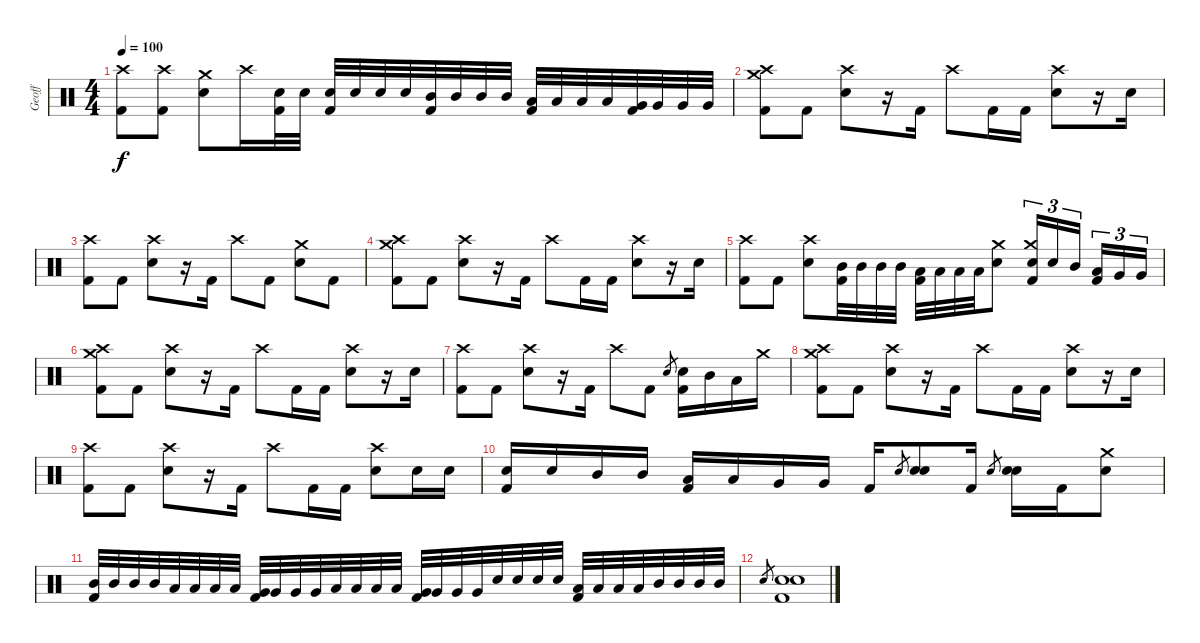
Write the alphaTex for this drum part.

\track ("Geoff" "Geoff") {instrument percussion}
\staff {score}
\articulation defaults
\ts (4 4)
\tempo 100
\clef neutral
\ks c
("Crash high (hit)" "Kick (hit) 2").8{dy f} ("Crash high (hit)" "Kick (hit) 2").8 ("Crash medium (hit)" "Electric Snare (hit)").8 "Crash high (hit)".16 ("Electric Snare (hit)" "Kick (hit) 2").32 "Electric Snare (hit)".32 ("Electric Snare (hit)" "Kick (hit) 2").32 "Electric Snare (hit)".32 "Electric Snare (hit)".32 "Electric Snare (hit)".32 ("Mid Tom (hit)" "Kick (hit) 2").32 "Mid Tom (hit)".32 "Mid Tom (hit)".32 "Mid Tom (hit)".32 ("Low Tom (hit)" "Kick (hit) 2").32 "Low Tom (hit)".32 "Low Tom (hit)".32 "Low Tom (hit)".32 ("Very Low Tom (hit)" "Kick (hit) 2").32 "Very Low Tom (hit)".32 "Very Low Tom (hit)".32 "Very Low Tom (hit)".32 |
("Crash high (hit)" "Crash medium (hit)" "Kick (hit) 2").8 "Kick (hit) 2".8 ("Crash high (hit)" "Electric Snare (hit)").8 r.16 "Kick (hit) 2".16 "Crash high (hit)".8 "Kick (hit) 2".16 "Kick (hit) 2".16 ("Crash high (hit)" "Electric Snare (hit)").8 r.16 "Electric Snare (hit)".16 |
("Crash high (hit)" "Kick (hit) 2").8 "Kick (hit) 2".8 ("Crash high (hit)" "Electric Snare (hit)").8 r.16 "Kick (hit) 2".16 "Crash high (hit)".8 "Kick (hit) 2".8 ("Crash medium (hit)" "Electric Snare (hit)").8 "Kick (hit) 2".8 |
("Crash high (hit)" "Crash medium (hit)" "Kick (hit) 2").8 "Kick (hit) 2".8 ("Crash high (hit)" "Electric Snare (hit)").8 r.16 "Kick (hit) 2".16 "Crash high (hit)".8 "Kick (hit) 2".16 "Kick (hit) 2".16 ("Crash high (hit)" "Electric Snare (hit)").8 r.16 "Electric Snare (hit)".16 |
("Crash high (hit)" "Kick (hit) 2").8 "Kick (hit) 2".8 ("Crash high (hit)" "Electric Snare (hit)").8 ("Mid Tom (hit)" "Kick (hit) 2").32 "Mid Tom (hit)".32 "Mid Tom (hit)".32 "Mid Tom (hit)".32 ("Low Tom (hit)" "Kick (hit) 2").32 "Low Tom (hit)".32 "Low Tom (hit)".32 "Low Tom (hit)".32 ("Crash medium (hit)" "Electric Snare (hit)").8 ("Crash medium (hit)" "Electric Snare (hit)" "Kick (hit) 2").16{tu (3 2)} "Electric Snare (hit)".16{tu (3 2)} "Mid Tom (hit)".16{tu (3 2)} ("Low Tom (hit)" "Kick (hit) 2").16{tu (3 2)} "Very Low Tom (hit)".16{tu (3 2)} "Very Low Tom (hit)".16{tu (3 2)} |
("Crash high (hit)" "Crash medium (hit)" "Kick (hit) 2").8 "Kick (hit) 2".8 ("Crash high (hit)" "Electric Snare (hit)").8 r.16 "Kick (hit) 2".16 "Crash high (hit)".8 "Kick (hit) 2".16 "Kick (hit) 2".16 ("Crash high (hit)" "Electric Snare (hit)").8 r.16 "Electric Snare (hit)".16 |
("Crash high (hit)" "Kick (hit) 2").8 "Kick (hit) 2".8 ("Crash high (hit)" "Electric Snare (hit)").8 r.16 "Kick (hit) 2".16 "Crash high (hit)".8 "Kick (hit) 2".8 "Electric Snare (hit)".8{gr} ("Electric Snare (hit)" "Kick (hit) 2").16 "Mid Tom (hit)".16 "Low Tom (hit)".16 "Crash medium (hit)".16 |
("Crash high (hit)" "Crash medium (hit)" "Kick (hit) 2").8 "Kick (hit) 2".8 ("Crash high (hit)" "Electric Snare (hit)").8 r.16 "Kick (hit) 2".16 "Crash high (hit)".8 "Kick (hit) 2".16 "Kick (hit) 2".16 ("Crash high (hit)" "Electric Snare (hit)").8 r.16 "Electric Snare (hit)".16 |
("Crash high (hit)" "Kick (hit) 2").8 "Kick (hit) 2".8 ("Crash high (hit)" "Electric Snare (hit)").8 r.16 "Kick (hit) 2".16 "Crash high (hit)".8 "Kick (hit) 2".16 "Kick (hit) 2".16 ("Crash high (hit)" "Electric Snare (hit)").8 "Electric Snare (hit)".16 "Electric Snare (hit)".16 |
("Electric Snare (hit)" "Kick (hit) 2").16 "Electric Snare (hit)".16 "Mid Tom (hit)".16 "Mid Tom (hit)".16 ("Low Tom (hit)" "Kick (hit) 2").16 "Low Tom (hit)".16 "Very Low Tom (hit)".16 "Very Low Tom (hit)".16 "Kick (hit) 2".16 "Electric Snare (hit)".8{gr} ("Electric Snare (hit)" "Electric Snare (hit)").8 "Kick (hit) 2".16 "Electric Snare (hit)".8{gr} ("Electric Snare (hit)" "Electric Snare (hit)").16 "Kick (hit) 2".16 ("Crash medium (hit)" "Electric Snare (hit)").8 |
("Mid Tom (hit)" "Kick (hit) 2").32 "Mid Tom (hit)".32 "Mid Tom (hit)".32 "Mid Tom (hit)".32 "Low Tom (hit)".32 "Low Tom (hit)".32 "Low Tom (hit)".32 "Low Tom (hit)".32 ("Very Low Tom (hit)" "Kick (hit) 2").32 "Very Low Tom (hit)".32 "Very Low Tom (hit)".32 "Very Low Tom (hit)".32 "Low Tom (hit)".32 "Low Tom (hit)".32 "Low Tom (hit)".32 "Low Tom (hit)".32 ("Very Low Tom (hit)" "Kick (hit) 2").32 "Very Low Tom (hit)".32 "Very Low Tom (hit)".32 "Very Low Tom (hit)".32 "Electric Snare (hit)".32 "Electric Snare (hit)".32 "Electric Snare (hit)".32 "Electric Snare (hit)".32 ("Low Tom (hit)" "Kick (hit) 2").32 "Low Tom (hit)".32 "Low Tom (hit)".32 "Low Tom (hit)".32 "Mid Tom (hit)".32 "Mid Tom (hit)".32 "Mid Tom (hit)".32 "Mid Tom (hit)".32 |
"Electric Snare (hit)".8{gr} ("Electric Snare (hit)" "Electric Snare (hit)" "Kick (hit) 2").1
